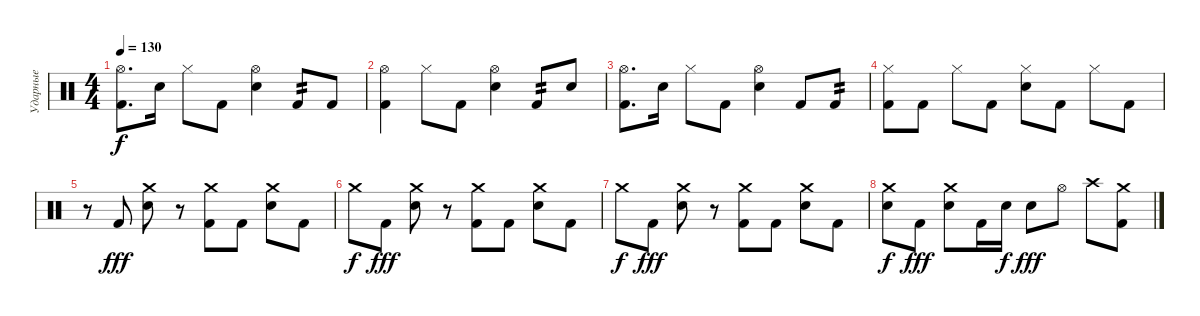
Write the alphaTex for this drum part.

\track ("Ударные" "Ударные") {instrument percussion}
\staff {score}
\articulation defaults
\ts (4 4)
\tempo 130
\clef neutral
\ks c
("Hi-Hat (open)" "Kick (hit) 2").8{d dy f} "Snare (hit) 2".16 "Hi-Hat (closed)".8 "Kick (hit) 2".8 ("Hi-Hat (open)" "Snare (hit) 2").4 "Kick (hit) 2".8{tp 2} "Kick (hit) 2".8 |
("Hi-Hat (open)" "Kick (hit) 2").4 "Hi-Hat (closed)".8 "Kick (hit) 2".8 ("Hi-Hat (open)" "Snare (hit) 2").4 "Kick (hit) 2".8{tp 2} "Snare (hit) 2".8 |
("Hi-Hat (open)" "Kick (hit) 2").8{d} "Snare (hit) 2".16 "Hi-Hat (closed)".8 "Kick (hit) 2".8 ("Hi-Hat (open)" "Snare (hit) 2").4 "Kick (hit) 2".8 "Kick (hit) 2".8{tp 2} |
("Hi-Hat (closed)" "Kick (hit) 2").8 "Kick (hit) 2".8 "Hi-Hat (closed)".8 "Kick (hit) 2".8 ("Hi-Hat (closed)" "Snare (hit) 2").8 "Kick (hit) 2".8 "Hi-Hat (closed)".8 "Kick (hit) 2".8 |
r.8 "Kick (hit) 2".8{dy fff} ("Crash medium (hit)" "Electric Snare (hit)").8 r.8 ("Crash medium (hit)" "Kick (hit) 2").8 "Kick (hit) 2".8 ("Crash medium (hit)" "Electric Snare (hit)").8 "Kick (hit) 2".8 |
"Crash medium (hit)".8{dy f} "Kick (hit) 2".8{dy fff} ("Crash medium (hit)" "Electric Snare (hit)").8 r.8 ("Crash medium (hit)" "Kick (hit) 2").8 "Kick (hit) 2".8 ("Crash medium (hit)" "Electric Snare (hit)").8 "Kick (hit) 2".8 |
"Crash medium (hit)".8{dy f} "Kick (hit) 2".8{dy fff} ("Crash medium (hit)" "Electric Snare (hit)").8 r.8 ("Crash medium (hit)" "Kick (hit) 2").8 "Kick (hit) 2".8 ("Crash medium (hit)" "Electric Snare (hit)").8 "Kick (hit) 2".8 |
("Crash medium (hit)" "Electric Snare (hit)").8{dy f} "Kick (hit) 2".8{dy fff} ("Crash medium (hit)" "Electric Snare (hit)").8 "Kick (hit) 2".16 "Electric Snare (hit)".16{dy f} "Electric Snare (hit)".8{dy fff} "Hi-Hat (open)".8 "Crash high (hit)".8 ("Crash medium (hit)" "Kick (hit) 2").8
